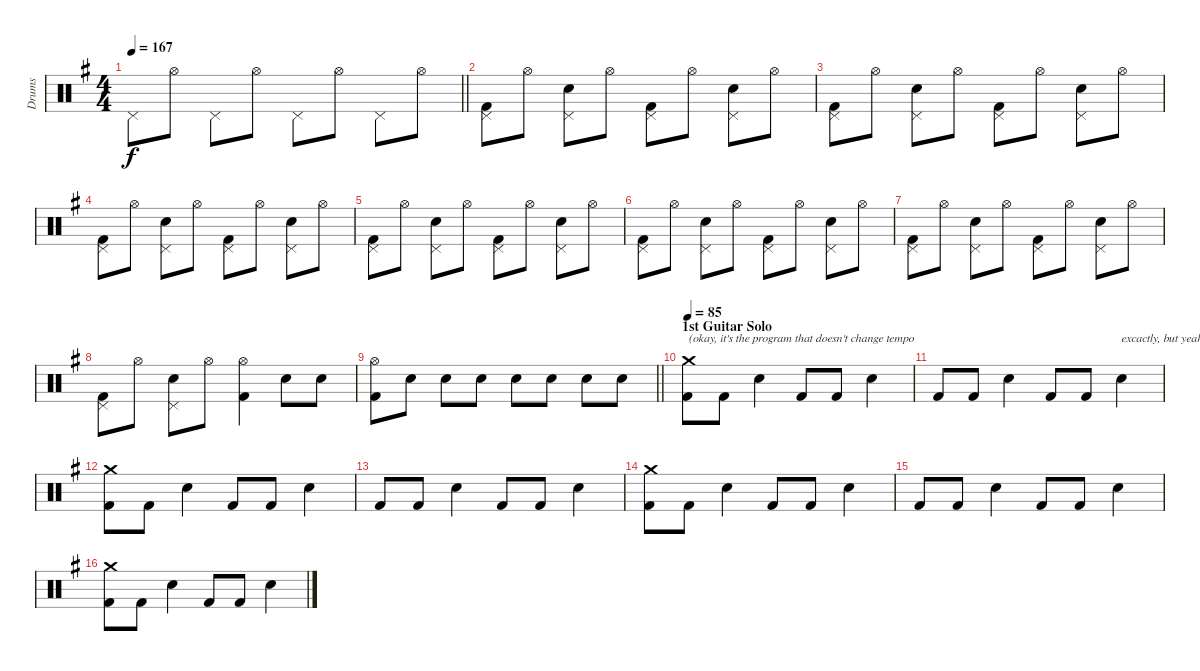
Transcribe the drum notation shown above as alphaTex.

\track ("Drums" "Drums") {instrument percussion}
\staff {score}
\articulation defaults
\ts (4 4)
\tempo 167
\clef neutral
\barLineRight lightlight
\ks eminor "Pedal Hi-Hat (hit)".8{dy f} "Hi-Hat (open)".8 "Pedal Hi-Hat (hit)".8 "Hi-Hat (open)".8 "Pedal Hi-Hat (hit)".8 "Hi-Hat (open)".8 "Pedal Hi-Hat (hit)".8 "Hi-Hat (open)".8
|
("Pedal Hi-Hat (hit)" "Kick (hit) 2").8 "Hi-Hat (open)".8 ("Pedal Hi-Hat (hit)" "Snare (hit) 2").8 "Hi-Hat (open)".8 ("Pedal Hi-Hat (hit)" "Kick (hit) 2").8 "Hi-Hat (open)".8 ("Pedal Hi-Hat (hit)" "Snare (hit) 2").8 "Hi-Hat (open)".8 |
("Pedal Hi-Hat (hit)" "Kick (hit) 2").8 "Hi-Hat (open)".8 ("Pedal Hi-Hat (hit)" "Snare (hit) 2").8 "Hi-Hat (open)".8 ("Pedal Hi-Hat (hit)" "Kick (hit) 2").8 "Hi-Hat (open)".8 ("Pedal Hi-Hat (hit)" "Snare (hit) 2").8 "Hi-Hat (open)".8 |
("Pedal Hi-Hat (hit)" "Kick (hit) 2").8 "Hi-Hat (open)".8 ("Pedal Hi-Hat (hit)" "Snare (hit) 2").8 "Hi-Hat (open)".8 ("Pedal Hi-Hat (hit)" "Kick (hit) 2").8 "Hi-Hat (open)".8 ("Pedal Hi-Hat (hit)" "Snare (hit) 2").8 "Hi-Hat (open)".8 |
("Pedal Hi-Hat (hit)" "Kick (hit) 2").8 "Hi-Hat (open)".8 ("Pedal Hi-Hat (hit)" "Snare (hit) 2").8 "Hi-Hat (open)".8 ("Pedal Hi-Hat (hit)" "Kick (hit) 2").8 "Hi-Hat (open)".8 ("Pedal Hi-Hat (hit)" "Snare (hit) 2").8 "Hi-Hat (open)".8 |
("Pedal Hi-Hat (hit)" "Kick (hit) 2").8 "Hi-Hat (open)".8 ("Pedal Hi-Hat (hit)" "Snare (hit) 2").8 "Hi-Hat (open)".8 ("Pedal Hi-Hat (hit)" "Kick (hit) 2").8 "Hi-Hat (open)".8 ("Pedal Hi-Hat (hit)" "Snare (hit) 2").8 "Hi-Hat (open)".8 |
("Pedal Hi-Hat (hit)" "Kick (hit) 2").8 "Hi-Hat (open)".8 ("Pedal Hi-Hat (hit)" "Snare (hit) 2").8 "Hi-Hat (open)".8 ("Pedal Hi-Hat (hit)" "Kick (hit) 2").8 "Hi-Hat (open)".8 ("Pedal Hi-Hat (hit)" "Snare (hit) 2").8 "Hi-Hat (open)".8 |
("Pedal Hi-Hat (hit)" "Kick (hit) 2").8 "Hi-Hat (open)".8 ("Pedal Hi-Hat (hit)" "Snare (hit) 2").8 "Hi-Hat (open)".8 ("Hi-Hat (open)" "Kick (hit) 2").4 "Snare (hit) 2".8 "Snare (hit) 2".8 |
\barLineRight lightlight
("Hi-Hat (open)" "Kick (hit) 2").8 "Snare (hit) 2".8 "Snare (hit) 2".8 "Snare (hit) 2".8 "Snare (hit) 2".8 "Snare (hit) 2".8 "Snare (hit) 2".8 "Snare (hit) 2".8 |
\section ("" "1st Guitar Solo")
\tempo 85
("Crash medium (hit)" "Kick (hit) 2").8{txt "(okay, it's the program that doesn't change tempo"} "Kick (hit) 2".8 "Snare (hit) 2".4 "Kick (hit) 2".8 "Kick (hit) 2".8 "Snare (hit) 2".4 |
"Kick (hit) 2".8 "Kick (hit) 2".8 "Snare (hit) 2".4 "Kick (hit) 2".8 "Kick (hit) 2".8 "Snare (hit) 2".4{txt "excactly, but yeah, it's changes on 1)"} |
("Crash medium (hit)" "Kick (hit) 2").8 "Kick (hit) 2".8 "Snare (hit) 2".4 "Kick (hit) 2".8 "Kick (hit) 2".8 "Snare (hit) 2".4 |
"Kick (hit) 2".8 "Kick (hit) 2".8 "Snare (hit) 2".4 "Kick (hit) 2".8 "Kick (hit) 2".8 "Snare (hit) 2".4 |
("Crash medium (hit)" "Kick (hit) 2").8 "Kick (hit) 2".8 "Snare (hit) 2".4 "Kick (hit) 2".8 "Kick (hit) 2".8 "Snare (hit) 2".4 |
"Kick (hit) 2".8 "Kick (hit) 2".8 "Snare (hit) 2".4 "Kick (hit) 2".8 "Kick (hit) 2".8 "Snare (hit) 2".4 |
("Crash medium (hit)" "Kick (hit) 2").8 "Kick (hit) 2".8 "Snare (hit) 2".4 "Kick (hit) 2".8 "Kick (hit) 2".8 "Snare (hit) 2".4
